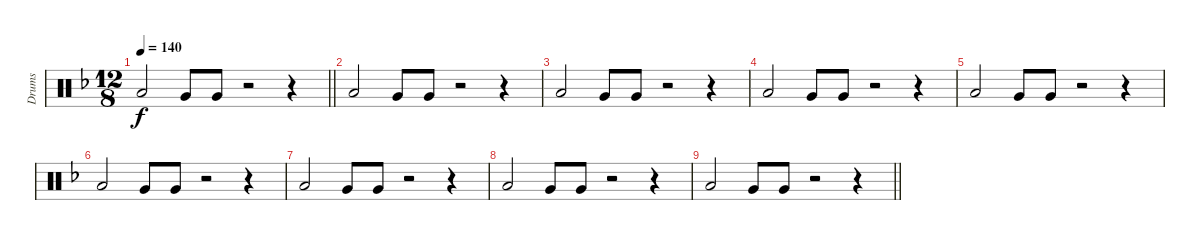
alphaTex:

\track ("Drums" "Drums") {instrument percussion}
\staff {score}
\articulation defaults
\ts (12 8)
\tempo 140
\clef neutral
\barLineRight lightlight
\ks f "Low Floor Tom (hit)".2{dy f} "Very Low Tom (hit)".8 "Very Low Tom (hit)".8
r.2 r.4 |
"Low Floor Tom (hit)".2 "Very Low Tom (hit)".8 "Very Low Tom (hit)".8 r.2 r.4 |
"Low Floor Tom (hit)".2 "Very Low Tom (hit)".8 "Very Low Tom (hit)".8 r.2 r.4 |
"Low Floor Tom (hit)".2 "Very Low Tom (hit)".8 "Very Low Tom (hit)".8 r.2 r.4 |
"Low Floor Tom (hit)".2 "Very Low Tom (hit)".8 "Very Low Tom (hit)".8 r.2 r.4 |
"Low Floor Tom (hit)".2{volume 0} "Very Low Tom (hit)".8 "Very Low Tom (hit)".8 r.2 r.4 |
"Low Floor Tom (hit)".2 "Very Low Tom (hit)".8 "Very Low Tom (hit)".8 r.2 r.4 |
"Low Floor Tom (hit)".2 "Very Low Tom (hit)".8 "Very Low Tom (hit)".8 r.2 r.4 |
\barLineRight lightlight "Low Floor Tom (hit)".2 "Very Low Tom (hit)".8 "Very Low Tom (hit)".8
r.2 r.4
